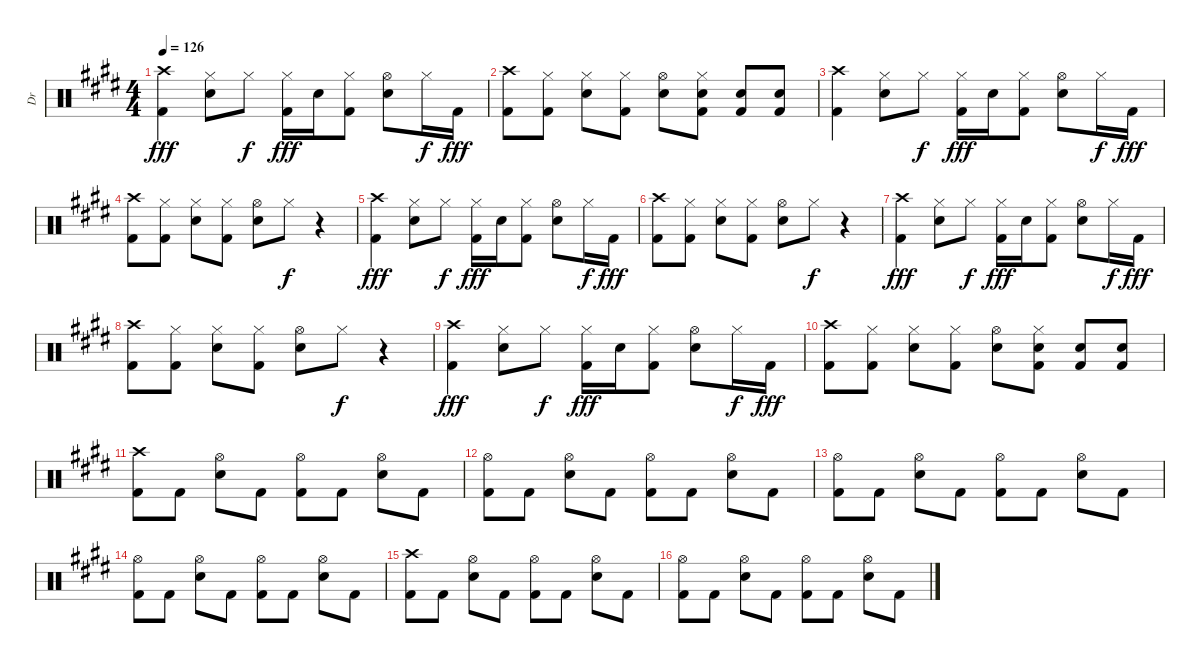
\track ("Dr" "Dr") {instrument percussion}
\staff {score}
\articulation defaults
\ts (4 4)
\tempo 126
\clef neutral
\ks e
("Crash high (hit)" "Kick (hit) 2").4{dy fff} ("Hi-Hat (closed)" "Electric Snare (hit)").8 "Hi-Hat (closed)".8{dy f} ("Hi-Hat (closed)" "Kick (hit) 2").16{dy fff} "Electric Snare (hit)".16 ("Hi-Hat (closed)" "Kick (hit) 2").8 ("Hi-Hat (open)" "Electric Snare (hit)").8 "Hi-Hat (closed)".16{dy f} "Kick (hit) 2".16{dy fff} |
("Crash high (hit)" "Kick (hit) 2").8 ("Hi-Hat (closed)" "Kick (hit) 2").8 ("Hi-Hat (closed)" "Electric Snare (hit)").8 ("Hi-Hat (closed)" "Kick (hit) 2").8 ("Hi-Hat (open)" "Electric Snare (hit)").8 ("Hi-Hat (closed)" "Electric Snare (hit)" "Kick (hit) 2").8 ("Electric Snare (hit)" "Kick (hit) 2").8 ("Electric Snare (hit)" "Kick (hit) 2").8 |
("Crash high (hit)" "Kick (hit) 2").4 ("Hi-Hat (closed)" "Electric Snare (hit)").8 "Hi-Hat (closed)".8{dy f} ("Hi-Hat (closed)" "Kick (hit) 2").16{dy fff} "Electric Snare (hit)".16 ("Hi-Hat (closed)" "Kick (hit) 2").8 ("Hi-Hat (open)" "Electric Snare (hit)").8 "Hi-Hat (closed)".16{dy f} "Kick (hit) 2".16{dy fff} |
("Crash high (hit)" "Kick (hit) 2").8 ("Hi-Hat (closed)" "Kick (hit) 2").8 ("Hi-Hat (closed)" "Electric Snare (hit)").8 ("Hi-Hat (closed)" "Kick (hit) 2").8 ("Hi-Hat (open)" "Electric Snare (hit)").8 "Hi-Hat (closed)".8{dy f} r.4 |
("Crash high (hit)" "Kick (hit) 2").4{dy fff} ("Hi-Hat (closed)" "Electric Snare (hit)").8 "Hi-Hat (closed)".8{dy f} ("Hi-Hat (closed)" "Kick (hit) 2").16{dy fff} "Electric Snare (hit)".16 ("Hi-Hat (closed)" "Kick (hit) 2").8 ("Hi-Hat (open)" "Electric Snare (hit)").8 "Hi-Hat (closed)".16{dy f} "Kick (hit) 2".16{dy fff} |
("Crash high (hit)" "Kick (hit) 2").8 ("Hi-Hat (closed)" "Kick (hit) 2").8 ("Hi-Hat (closed)" "Electric Snare (hit)").8 ("Hi-Hat (closed)" "Kick (hit) 2").8 ("Hi-Hat (open)" "Electric Snare (hit)").8 "Hi-Hat (closed)".8{dy f} r.4 |
("Crash high (hit)" "Kick (hit) 2").4{dy fff} ("Hi-Hat (closed)" "Electric Snare (hit)").8 "Hi-Hat (closed)".8{dy f} ("Hi-Hat (closed)" "Kick (hit) 2").16{dy fff} "Electric Snare (hit)".16 ("Hi-Hat (closed)" "Kick (hit) 2").8 ("Hi-Hat (open)" "Electric Snare (hit)").8 "Hi-Hat (closed)".16{dy f} "Kick (hit) 2".16{dy fff} |
("Crash high (hit)" "Kick (hit) 2").8 ("Hi-Hat (closed)" "Kick (hit) 2").8 ("Hi-Hat (closed)" "Electric Snare (hit)").8 ("Hi-Hat (closed)" "Kick (hit) 2").8 ("Hi-Hat (open)" "Electric Snare (hit)").8 "Hi-Hat (closed)".8{dy f} r.4 |
("Crash high (hit)" "Kick (hit) 2").4{dy fff} ("Hi-Hat (closed)" "Electric Snare (hit)").8 "Hi-Hat (closed)".8{dy f} ("Hi-Hat (closed)" "Kick (hit) 2").16{dy fff} "Electric Snare (hit)".16 ("Hi-Hat (closed)" "Kick (hit) 2").8 ("Hi-Hat (open)" "Electric Snare (hit)").8 "Hi-Hat (closed)".16{dy f} "Kick (hit) 2".16{dy fff} |
("Crash high (hit)" "Kick (hit) 2").8 ("Hi-Hat (closed)" "Kick (hit) 2").8 ("Hi-Hat (closed)" "Electric Snare (hit)").8 ("Hi-Hat (closed)" "Kick (hit) 2").8 ("Hi-Hat (open)" "Electric Snare (hit)").8 ("Hi-Hat (closed)" "Electric Snare (hit)" "Kick (hit) 2").8 ("Electric Snare (hit)" "Kick (hit) 2").8 ("Electric Snare (hit)" "Kick (hit) 2").8 |
("Crash high (hit)" "Kick (hit) 2").8 "Kick (hit) 2".8 ("Hi-Hat (open)" "Electric Snare (hit)").8 "Kick (hit) 2".8 ("Hi-Hat (open)" "Kick (hit) 2").8 "Kick (hit) 2".8 ("Hi-Hat (open)" "Electric Snare (hit)").8 "Kick (hit) 2".8 |
("Hi-Hat (open)" "Kick (hit) 2").8 "Kick (hit) 2".8 ("Hi-Hat (open)" "Electric Snare (hit)").8 "Kick (hit) 2".8 ("Hi-Hat (open)" "Kick (hit) 2").8 "Kick (hit) 2".8 ("Hi-Hat (open)" "Electric Snare (hit)").8 "Kick (hit) 2".8 |
("Hi-Hat (open)" "Kick (hit) 2").8 "Kick (hit) 2".8 ("Hi-Hat (open)" "Electric Snare (hit)").8 "Kick (hit) 2".8 ("Hi-Hat (open)" "Kick (hit) 2").8 "Kick (hit) 2".8 ("Hi-Hat (open)" "Electric Snare (hit)").8 "Kick (hit) 2".8 |
("Hi-Hat (open)" "Kick (hit) 2").8 "Kick (hit) 2".8 ("Hi-Hat (open)" "Electric Snare (hit)").8 "Kick (hit) 2".8 ("Hi-Hat (open)" "Kick (hit) 2").8 "Kick (hit) 2".8 ("Hi-Hat (open)" "Electric Snare (hit)").8 "Kick (hit) 2".8 |
("Crash high (hit)" "Kick (hit) 2").8 "Kick (hit) 2".8 ("Hi-Hat (open)" "Electric Snare (hit)").8 "Kick (hit) 2".8 ("Hi-Hat (open)" "Kick (hit) 2").8 "Kick (hit) 2".8 ("Hi-Hat (open)" "Electric Snare (hit)").8 "Kick (hit) 2".8 |
("Hi-Hat (open)" "Kick (hit) 2").8 "Kick (hit) 2".8 ("Hi-Hat (open)" "Electric Snare (hit)").8 "Kick (hit) 2".8 ("Hi-Hat (open)" "Kick (hit) 2").8 "Kick (hit) 2".8 ("Hi-Hat (open)" "Electric Snare (hit)").8 "Kick (hit) 2".8
